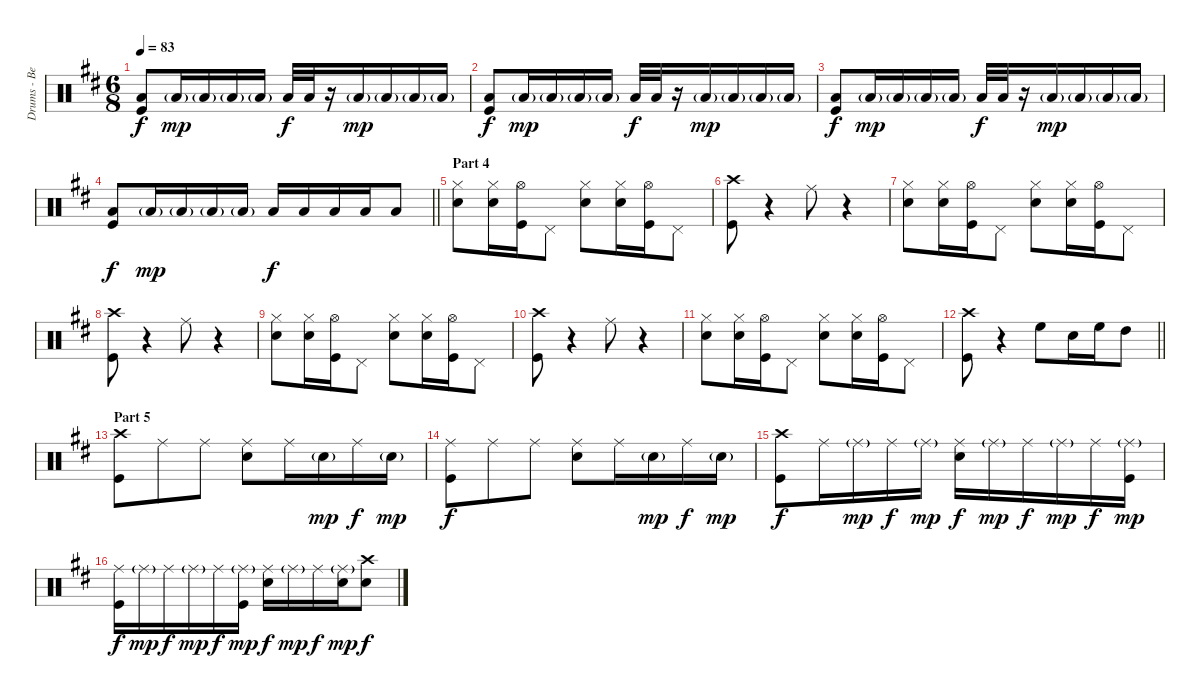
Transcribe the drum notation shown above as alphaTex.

\track ("Drums - Ben Johnston" "Drums - Be") {instrument percussion}
\staff {score}
\articulation defaults
\ts (6 8)
\tempo 83
\clef neutral
\ks d
("Low Tom (hit)" "Kick (hit)").8{dy f} "Low Tom (hit)"{g}.16{dy mp} "Low Tom (hit)"{g}.16 "Low Tom (hit)"{g}.16 "Low Tom (hit)"{g}.16 "Low Tom (hit)".32{dy f} "Low Tom (hit)".32 r.16 "Low Tom (hit)"{g}.16{dy mp} "Low Tom (hit)"{g}.16 "Low Tom (hit)"{g}.16 "Low Tom (hit)"{g}.16 |
("Low Tom (hit)" "Kick (hit)").8{dy f} "Low Tom (hit)"{g}.16{dy mp} "Low Tom (hit)"{g}.16 "Low Tom (hit)"{g}.16 "Low Tom (hit)"{g}.16 "Low Tom (hit)".32{dy f} "Low Tom (hit)".32 r.16 "Low Tom (hit)"{g}.16{dy mp} "Low Tom (hit)"{g}.16 "Low Tom (hit)"{g}.16 "Low Tom (hit)"{g}.16 |
("Low Tom (hit)" "Kick (hit)").8{dy f} "Low Tom (hit)"{g}.16{dy mp} "Low Tom (hit)"{g}.16 "Low Tom (hit)"{g}.16 "Low Tom (hit)"{g}.16 "Low Tom (hit)".32{dy f} "Low Tom (hit)".32 r.16 "Low Tom (hit)"{g}.16{dy mp} "Low Tom (hit)"{g}.16 "Low Tom (hit)"{g}.16 "Low Tom (hit)"{g}.16 |
\barLineRight lightlight
("Low Tom (hit)" "Kick (hit)").8{dy f} "Low Tom (hit)"{g}.16{dy mp} "Low Tom (hit)"{g}.16 "Low Tom (hit)"{g}.16 "Low Tom (hit)"{g}.16 "Low Tom (hit)".16{dy f} "Low Tom (hit)".16 "Low Tom (hit)".16 "Low Tom (hit)".16 "Low Tom (hit)".8 |
\section ("" "Part 4")
("Hi-Hat (closed)" "Snare (hit) 2").8 ("Hi-Hat (closed)" "Snare (hit) 2").16 ("Hi-Hat (open)" "Kick (hit)").16 "Pedal Hi-Hat (hit)".8 ("Hi-Hat (closed)" "Snare (hit) 2").8 ("Hi-Hat (closed)" "Snare (hit) 2").16 ("Hi-Hat (open)" "Kick (hit)").16 "Pedal Hi-Hat (hit)".8 |
("Crash high (hit)" "Kick (hit)").8 r.4 "Ride (middle)".8 r.4 |
("Hi-Hat (closed)" "Snare (hit) 2").8 ("Hi-Hat (closed)" "Snare (hit) 2").16 ("Hi-Hat (open)" "Kick (hit)").16 "Pedal Hi-Hat (hit)".8 ("Hi-Hat (closed)" "Snare (hit) 2").8 ("Hi-Hat (closed)" "Snare (hit) 2").16 ("Hi-Hat (open)" "Kick (hit)").16 "Pedal Hi-Hat (hit)".8 |
("Crash high (hit)" "Kick (hit)").8 r.4 "Ride (middle)".8 r.4 |
("Hi-Hat (closed)" "Snare (hit) 2").8 ("Hi-Hat (closed)" "Snare (hit) 2").16 ("Hi-Hat (open)" "Kick (hit)").16 "Pedal Hi-Hat (hit)".8 ("Hi-Hat (closed)" "Snare (hit) 2").8 ("Hi-Hat (closed)" "Snare (hit) 2").16 ("Hi-Hat (open)" "Kick (hit)").16 "Pedal Hi-Hat (hit)".8 |
("Crash high (hit)" "Kick (hit)").8 r.4 "Ride (middle)".8 r.4 |
("Hi-Hat (closed)" "Snare (hit) 2").8 ("Hi-Hat (closed)" "Snare (hit) 2").16 ("Hi-Hat (open)" "Kick (hit)").16 "Pedal Hi-Hat (hit)".8 ("Hi-Hat (closed)" "Snare (hit) 2").8 ("Hi-Hat (closed)" "Snare (hit) 2").16 ("Hi-Hat (open)" "Kick (hit)").16 "Pedal Hi-Hat (hit)".8 |
\barLineRight lightlight
("Crash high (hit)" "Kick (hit)").8 r.4 "High Floor Tom (hit)".8 "Snare (hit) 2".16 "High Floor Tom (hit)".16 "High Tom (hit)".8 |
\section ("" "Part 5")
("Crash high (hit)" "Kick (hit)").8 "Ride (middle)".8 "Ride (middle)".8 ("Ride (middle)" "Snare (hit) 2").8 "Ride (middle)".16 "Snare (hit) 2"{g}.16{dy mp} "Ride (middle)".16{dy f} "Snare (hit) 2"{g}.16{dy mp} |
("Ride (middle)" "Kick (hit)").8{dy f} "Ride (middle)".8 "Ride (middle)".8 ("Ride (middle)" "Snare (hit) 2").8 "Ride (middle)".16 "Snare (hit) 2"{g}.16{dy mp} "Ride (middle)".16{dy f} "Snare (hit) 2"{g}.16{dy mp} |
("Crash high (hit)" "Kick (hit)").8{dy f} "Ride (middle)".16 "Ride (middle)"{g}.16{dy mp} "Ride (middle)".16{dy f} "Ride (middle)"{g}.16{dy mp} ("Ride (middle)" "Snare (hit) 2").16{dy f} "Ride (middle)"{g}.16{dy mp} "Ride (middle)".16{dy f} "Ride (middle)"{g}.16{dy mp} "Ride (middle)".16{dy f} ("Ride (middle)"{g} "Kick (hit)").16{dy mp} |
("Ride (middle)" "Kick (hit)").16{dy f} "Ride (middle)"{g}.16{dy mp} "Ride (middle)".16{dy f} "Ride (middle)"{g}.16{dy mp} "Ride (middle)".16{dy f} ("Ride (middle)"{g} "Kick (hit)").16{dy mp} ("Ride (middle)" "Snare (hit) 2").16{dy f} "Ride (middle)"{g}.16{dy mp} "Ride (middle)".16{dy f} ("Ride (middle)"{g} "Snare (hit) 2").16{dy mp} ("Crash high (hit)" "Snare (hit) 2").8{dy f}
